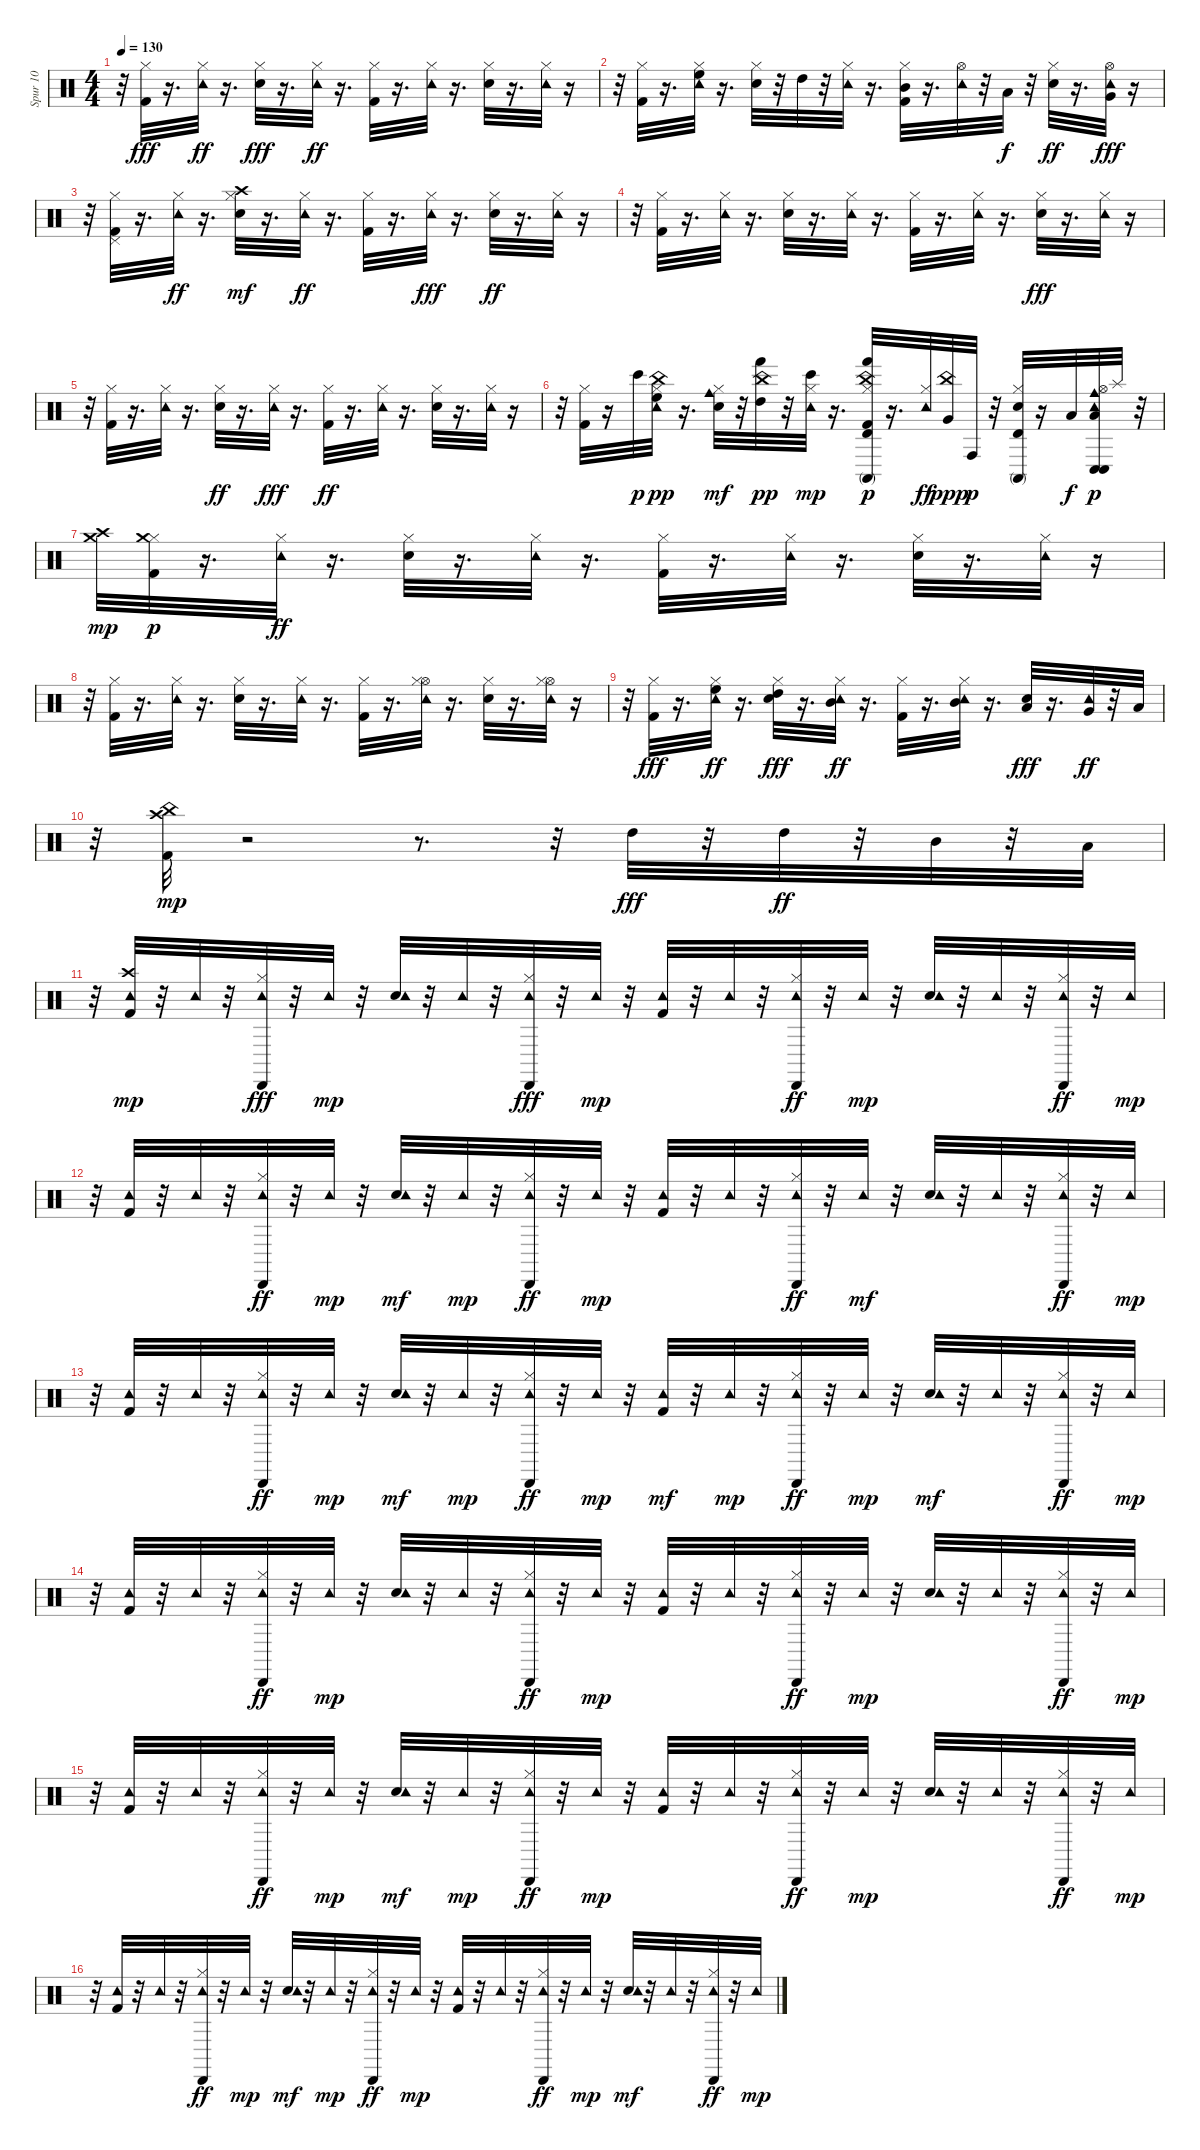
\track ("Spur 10" "Spur 10") {instrument percussion}
\staff {score}
\articulation defaults
\ts (4 4)
\tempo 130
\clef neutral
\ks c
r.32{dy fff} ("Kick (hit) 2" "Hi-Hat (closed)").32 r.16{d} ("Tambourine (hit)" "Hi-Hat (closed)").32{dy ff} r.16{d} ("Electric Snare (hit)" "Hi-Hat (closed)").32{dy fff} r.16{d} ("Tambourine (hit)" "Hi-Hat (closed)").32{dy ff} r.16{d} ("Kick (hit) 2" "Hi-Hat (closed)").32 r.16{d} ("Tambourine (hit)" "Hi-Hat (closed)").32 r.16{d} ("Electric Snare (hit)" "Hi-Hat (closed)").32 r.16{d} ("Tambourine (hit)" "Hi-Hat (closed)").32 r.16 |
r.32 ("Kick (hit) 2" "Hi-Hat (closed)").32 r.16{d} ("Tambourine (hit)" "Hi-Hat (closed)" "High Floor Tom (hit)").32 r.16{d} ("Electric Snare (hit)" "Hi-Hat (closed)").32 r.32 "High Tom (hit)".32 r.32 ("Tambourine (hit)" "Hi-Hat (closed)").32 r.16{d} ("Kick (hit) 2" "Hi-Hat (closed)" "Mid Tom (hit)").32 r.16{d} ("Tambourine (hit)" "Hi-Hat (open)").32 r.32 "Low Tom (hit)".32{dy f} r.32 ("Electric Snare (hit)" "Hi-Hat (closed)").32{dy ff} r.16{d} ("Tambourine (hit)" "Hi-Hat (open)" "Very Low Tom (hit)").32{dy fff} r.16 |
r.32 ("Kick (hit) 2" "Hi-Hat (closed)" "Pedal Hi-Hat (hit)").32 r.16{d} ("Tambourine (hit)" "Hi-Hat (closed)").32{dy ff} r.16{d} ("Electric Snare (hit)" "Hi-Hat (closed)" "Crash high (hit)").32{dy mf} r.16{d} ("Tambourine (hit)" "Hi-Hat (closed)").32{dy ff} r.16{d} ("Kick (hit) 2" "Hi-Hat (closed)").32 r.16{d} ("Tambourine (hit)" "Hi-Hat (closed)").32{dy fff} r.16{d} ("Electric Snare (hit)" "Hi-Hat (closed)").32{dy ff} r.16{d} ("Tambourine (hit)" "Hi-Hat (closed)").32 r.16 |
r.32 ("Kick (hit) 2" "Hi-Hat (closed)").32 r.16{d} ("Tambourine (hit)" "Hi-Hat (closed)").32 r.16{d} ("Electric Snare (hit)" "Hi-Hat (closed)").32 r.16{d} ("Tambourine (hit)" "Hi-Hat (closed)").32 r.16{d} ("Kick (hit) 2" "Hi-Hat (closed)").32 r.16{d} ("Tambourine (hit)" "Hi-Hat (closed)").32 r.16{d} ("Electric Snare (hit)" "Hi-Hat (closed)").32{dy fff} r.16{d} ("Tambourine (hit)" "Hi-Hat (closed)").32 r.16 |
r.32 ("Kick (hit) 2" "Hi-Hat (closed)").32 r.16{d} ("Tambourine (hit)" "Hi-Hat (closed)").32 r.16{d} ("Electric Snare (hit)" "Hi-Hat (closed)").32{dy ff} r.16{d} ("Tambourine (hit)" "Hi-Hat (closed)").32{dy fff} r.16{d} ("Kick (hit) 2" "Hi-Hat (closed)").32{dy ff} r.16{d} ("Tambourine (hit)" "Hi-Hat (closed)").32 r.16{d} ("Electric Snare (hit)" "Hi-Hat (closed)").32 r.16{d} ("Tambourine (hit)" "Hi-Hat (closed)").32 r.16 |
r.32 ("Kick (hit) 2" "Hi-Hat (closed)").32 r.16 "Bongo High (hit)".32{dy p} ("Tambourine (hit)" "Hi-Hat (closed)" "China (hit)" "High Floor Tom (hit)").32{dy pp} r.16{d} ("Electric Snare (hit)" "Hi-Hat (closed)" "Cowbell medium (hit)").32{dy mf} r.32 ("Hand (hit)" "China (hit)" "High Tom (hit)").32{dy pp} r.32 ("Tambourine (hit)" "Hi-Hat (closed)" "Bongo High (hit)").32{dy mp} r.16{d} ("China (hit)" "Kick (hit) 2" "Hi-Hat (closed)" "Hand (hit)" "Timbale high (hit)" "Conga high (mute)").32{dy p} r.16{d} ("Tambourine (hit)" "Hi-Hat (closed)").32{dy ff} ("China (hit)" "Very Low Tom (hit)").32{dy ppp} "Conga high (hit)".32{dy p} r.32 ("Electric Snare (hit)" "Hi-Hat (closed)" "Conga high (mute)" "Timbale high (hit)").32 r.16 "Low Floor Tom (hit)".32{dy f} ("Tambourine (hit)" "Hi-Hat (open)" "Low Floor Tom (hit)" "Conga low (hit)" "Cowbell medium (hit)" "Conga low (hit)").32{dy p} "Splash (hit)".32 r.32 |
("Crash high (hit)" "Crash medium (hit)").32{dy mp} ("Kick (hit) 2" "Hi-Hat (closed)" "Crash medium (hit)").32{dy p} r.16{d} ("Tambourine (hit)" "Hi-Hat (closed)").32{dy ff} r.16{d} ("Electric Snare (hit)" "Hi-Hat (closed)").32 r.16{d} ("Tambourine (hit)" "Hi-Hat (closed)").32 r.16{d} ("Kick (hit) 2" "Hi-Hat (closed)").32 r.16{d} ("Tambourine (hit)" "Hi-Hat (closed)").32 r.16{d} ("Electric Snare (hit)" "Hi-Hat (closed)").32 r.16{d} ("Tambourine (hit)" "Hi-Hat (closed)").32 r.16 |
r.32 ("Kick (hit) 2" "Hi-Hat (closed)").32 r.16{d} ("Tambourine (hit)" "Hi-Hat (closed)").32 r.16{d} ("Electric Snare (hit)" "Hi-Hat (closed)").32 r.16{d} ("Tambourine (hit)" "Hi-Hat (closed)").32 r.16{d} ("Kick (hit) 2" "Hi-Hat (closed)").32 r.16{d} ("Tambourine (hit)" "Hi-Hat (open)" "Hi-Hat (closed)").32 r.16{d} ("Electric Snare (hit)" "Hi-Hat (closed)").32 r.16{d} ("Tambourine (hit)" "Hi-Hat (open)" "Hi-Hat (closed)").32 r.16 |
r.32 ("Kick (hit) 2" "Hi-Hat (closed)").32{dy fff} r.16{d} ("Tambourine (hit)" "Hi-Hat (closed)" "High Floor Tom (hit)").32{dy ff} r.16{d} ("Hi-Hat (closed)" "High Tom (hit)" "Electric Snare (hit)").32{dy fff} r.16{d} ("Tambourine (hit)" "Hi-Hat (closed)" "Mid Tom (hit)").32{dy ff} r.16{d} ("Kick (hit) 2" "Hi-Hat (closed)").32 r.16{d} ("Tambourine (hit)" "Hi-Hat (closed)" "Mid Tom (hit)").32 r.16{d} ("Low Tom (hit)" "Electric Snare (hit)").32{dy fff} r.16{d} ("Tambourine (hit)" "Very Low Tom (hit)").32{dy ff} r.32 "Low Floor Tom (hit)".32 |
r.32 ("Kick (hit) 2" "China (hit)" "Crash high (hit)").32{dy mp} r.2 r.8{d} r.32 "High Tom (hit)".32{dy fff} r.32 "High Tom (hit)".32{dy ff} r.32 "Mid Tom (hit)".32 r.32 "Low Tom (hit)".32 |
r.32 ("Kick (hit) 2" "Tambourine (hit)" "Crash high (hit)").32{dy mp} r.32 "Tambourine (hit)".32 r.32 ("Hi-Hat (closed)" "Tambourine (hit)" "Cabasa (hit)").32{dy fff} r.32 "Tambourine (hit)".32{dy mp} r.32 ("Electric Snare (hit)" "Tambourine (hit)").32 r.32 "Tambourine (hit)".32 r.32 ("Hi-Hat (closed)" "Tambourine (hit)" "Cabasa (hit)").32{dy fff} r.32 "Tambourine (hit)".32{dy mp} r.32 ("Kick (hit) 2" "Tambourine (hit)").32 r.32 "Tambourine (hit)".32 r.32 ("Hi-Hat (closed)" "Tambourine (hit)" "Cabasa (hit)").32{dy ff} r.32 "Tambourine (hit)".32{dy mp} r.32 ("Electric Snare (hit)" "Tambourine (hit)").32 r.32 "Tambourine (hit)".32 r.32 ("Hi-Hat (closed)" "Tambourine (hit)" "Cabasa (hit)").32{dy ff} r.32 "Tambourine (hit)".32{dy mp} |
r.32 ("Kick (hit) 2" "Tambourine (hit)").32 r.32 "Tambourine (hit)".32 r.32 ("Hi-Hat (closed)" "Tambourine (hit)" "Cabasa (hit)").32{dy ff} r.32 "Tambourine (hit)".32{dy mp} r.32 ("Electric Snare (hit)" "Tambourine (hit)").32{dy mf} r.32 "Tambourine (hit)".32{dy mp} r.32 ("Hi-Hat (closed)" "Tambourine (hit)" "Cabasa (hit)").32{dy ff} r.32 "Tambourine (hit)".32{dy mp} r.32 ("Kick (hit) 2" "Tambourine (hit)").32 r.32 "Tambourine (hit)".32 r.32 ("Hi-Hat (closed)" "Tambourine (hit)" "Cabasa (hit)").32{dy ff} r.32 "Tambourine (hit)".32{dy mf} r.32 ("Electric Snare (hit)" "Tambourine (hit)").32 r.32 "Tambourine (hit)".32 r.32 ("Hi-Hat (closed)" "Tambourine (hit)" "Cabasa (hit)").32{dy ff} r.32 "Tambourine (hit)".32{dy mp} |
r.32 ("Kick (hit) 2" "Tambourine (hit)").32 r.32 "Tambourine (hit)".32 r.32 ("Hi-Hat (closed)" "Tambourine (hit)" "Cabasa (hit)").32{dy ff} r.32 "Tambourine (hit)".32{dy mp} r.32 ("Electric Snare (hit)" "Tambourine (hit)").32{dy mf} r.32 "Tambourine (hit)".32{dy mp} r.32 ("Hi-Hat (closed)" "Tambourine (hit)" "Cabasa (hit)").32{dy ff} r.32 "Tambourine (hit)".32{dy mp} r.32 ("Kick (hit) 2" "Tambourine (hit)").32{dy mf} r.32 "Tambourine (hit)".32{dy mp} r.32 ("Hi-Hat (closed)" "Tambourine (hit)" "Cabasa (hit)").32{dy ff} r.32 "Tambourine (hit)".32{dy mp} r.32 ("Electric Snare (hit)" "Tambourine (hit)").32{dy mf} r.32 "Tambourine (hit)".32 r.32 ("Hi-Hat (closed)" "Tambourine (hit)" "Cabasa (hit)").32{dy ff} r.32 "Tambourine (hit)".32{dy mp} |
r.32 ("Kick (hit) 2" "Tambourine (hit)").32 r.32 "Tambourine (hit)".32 r.32 ("Hi-Hat (closed)" "Tambourine (hit)" "Cabasa (hit)").32{dy ff} r.32 "Tambourine (hit)".32{dy mp} r.32 ("Electric Snare (hit)" "Tambourine (hit)").32 r.32 "Tambourine (hit)".32 r.32 ("Hi-Hat (closed)" "Tambourine (hit)" "Cabasa (hit)").32{dy ff} r.32 "Tambourine (hit)".32{dy mp} r.32 ("Kick (hit) 2" "Tambourine (hit)").32 r.32 "Tambourine (hit)".32 r.32 ("Hi-Hat (closed)" "Tambourine (hit)" "Cabasa (hit)").32{dy ff} r.32 "Tambourine (hit)".32{dy mp} r.32 ("Electric Snare (hit)" "Tambourine (hit)").32 r.32 "Tambourine (hit)".32 r.32 ("Hi-Hat (closed)" "Tambourine (hit)" "Cabasa (hit)").32{dy ff} r.32 "Tambourine (hit)".32{dy mp} |
r.32 ("Kick (hit) 2" "Tambourine (hit)").32 r.32 "Tambourine (hit)".32 r.32 ("Hi-Hat (closed)" "Tambourine (hit)" "Cabasa (hit)").32{dy ff} r.32 "Tambourine (hit)".32{dy mp} r.32 ("Electric Snare (hit)" "Tambourine (hit)").32{dy mf} r.32 "Tambourine (hit)".32{dy mp} r.32 ("Hi-Hat (closed)" "Tambourine (hit)" "Cabasa (hit)").32{dy ff} r.32 "Tambourine (hit)".32{dy mp} r.32 ("Kick (hit) 2" "Tambourine (hit)").32 r.32 "Tambourine (hit)".32 r.32 ("Hi-Hat (closed)" "Tambourine (hit)" "Cabasa (hit)").32{dy ff} r.32 "Tambourine (hit)".32{dy mp} r.32 ("Electric Snare (hit)" "Tambourine (hit)").32 r.32 "Tambourine (hit)".32 r.32 ("Hi-Hat (closed)" "Tambourine (hit)" "Cabasa (hit)").32{dy ff} r.32 "Tambourine (hit)".32{dy mp} |
r.32 ("Kick (hit) 2" "Tambourine (hit)").32 r.32 "Tambourine (hit)".32 r.32 ("Hi-Hat (closed)" "Tambourine (hit)" "Cabasa (hit)").32{dy ff} r.32 "Tambourine (hit)".32{dy mp} r.32 ("Electric Snare (hit)" "Tambourine (hit)").32{dy mf} r.32 "Tambourine (hit)".32{dy mp} r.32 ("Hi-Hat (closed)" "Tambourine (hit)" "Cabasa (hit)").32{dy ff} r.32 "Tambourine (hit)".32{dy mp} r.32 ("Kick (hit) 2" "Tambourine (hit)").32 r.32 "Tambourine (hit)".32 r.32 ("Hi-Hat (closed)" "Tambourine (hit)" "Cabasa (hit)").32{dy ff} r.32 "Tambourine (hit)".32{dy mp} r.32 ("Electric Snare (hit)" "Tambourine (hit)").32{dy mf} r.32 "Tambourine (hit)".32 r.32 ("Hi-Hat (closed)" "Tambourine (hit)" "Cabasa (hit)").32{dy ff} r.32 "Tambourine (hit)".32{dy mp}
